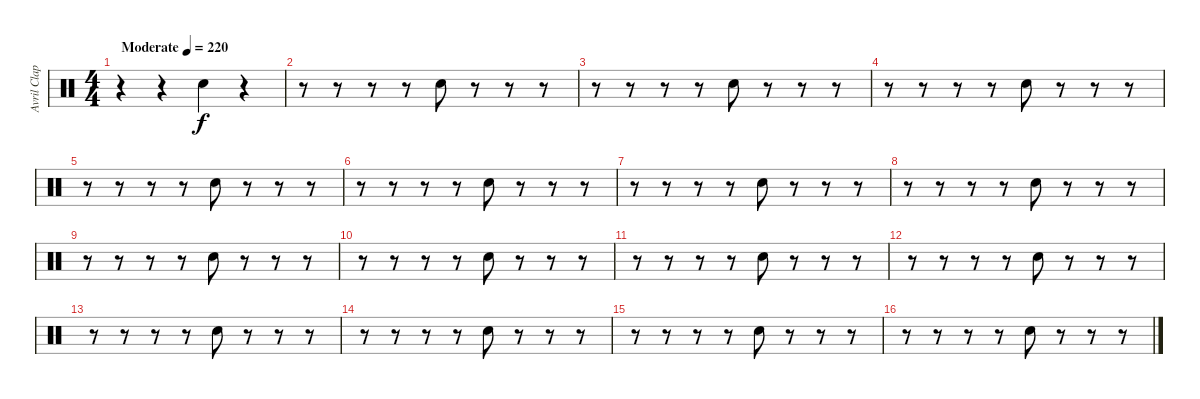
\track ("Avril Claps" "Avril Clap") {instrument percussion}
\staff {score}
\articulation defaults
\ts (4 4)
\tempo (220 "Moderate")
\clef neutral
\ks c
r.4{dy f} r.4 "Hand Clap (hit)".4 r.4 |
r.8 r.8 r.8 r.8 "Hand Clap (hit)".8 r.8 r.8 r.8 |
r.8 r.8 r.8 r.8 "Hand Clap (hit)".8 r.8 r.8 r.8 |
r.8 r.8 r.8 r.8 "Hand Clap (hit)".8 r.8 r.8 r.8 |
r.8 r.8 r.8 r.8 "Hand Clap (hit)".8 r.8 r.8 r.8 |
r.8 r.8 r.8 r.8 "Hand Clap (hit)".8 r.8 r.8 r.8 |
r.8 r.8 r.8 r.8 "Hand Clap (hit)".8 r.8 r.8 r.8 |
r.8 r.8 r.8 r.8 "Hand Clap (hit)".8 r.8 r.8 r.8 |
r.8 r.8 r.8 r.8 "Hand Clap (hit)".8 r.8 r.8 r.8 |
r.8 r.8 r.8 r.8 "Hand Clap (hit)".8 r.8 r.8 r.8 |
r.8 r.8 r.8 r.8 "Hand Clap (hit)".8 r.8 r.8 r.8 |
r.8 r.8 r.8 r.8 "Hand Clap (hit)".8 r.8 r.8 r.8 |
r.8 r.8 r.8 r.8 "Hand Clap (hit)".8 r.8 r.8 r.8 |
r.8 r.8 r.8 r.8 "Hand Clap (hit)".8 r.8 r.8 r.8 |
r.8 r.8 r.8 r.8 "Hand Clap (hit)".8 r.8 r.8 r.8 |
r.8 r.8 r.8 r.8 "Hand Clap (hit)".8 r.8 r.8 r.8
